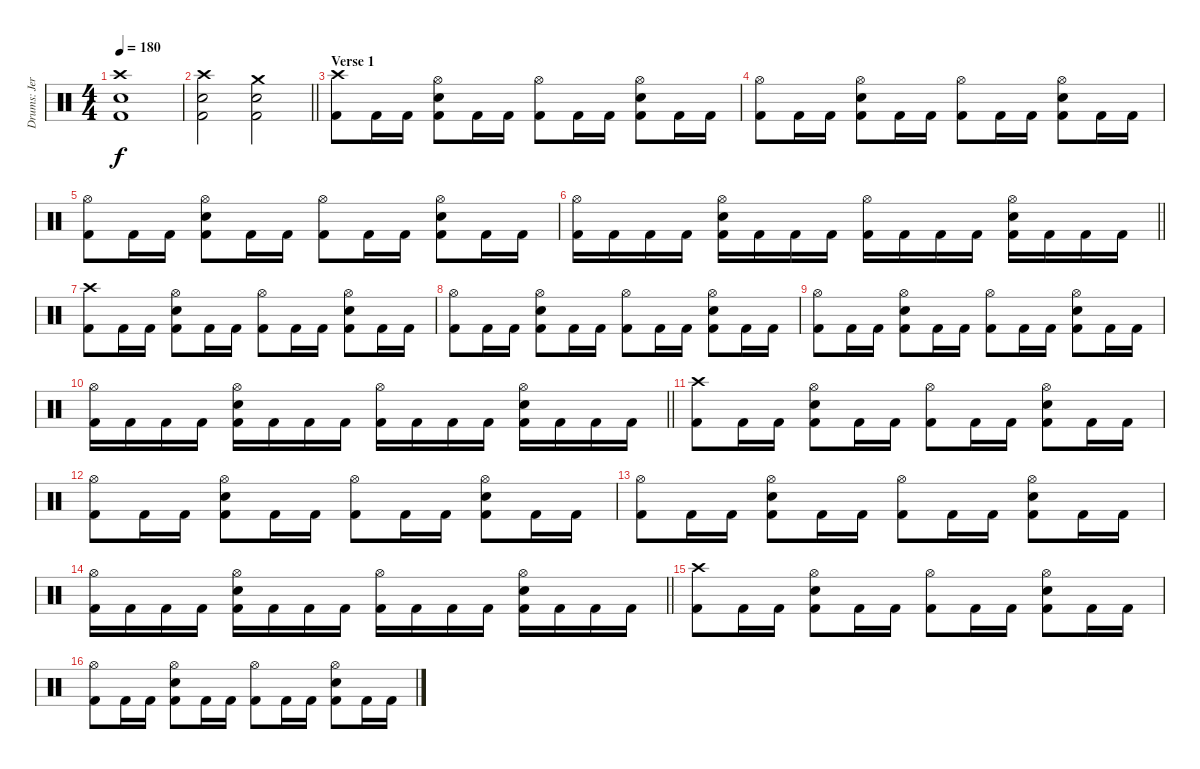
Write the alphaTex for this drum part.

\track ("Drums: Jere Luokkamäki" "Drums: Jer") {instrument percussion}
\staff {score}
\articulation defaults
\ts (4 4)
\tempo 180
\clef neutral
\ks aminor
("Crash high (hit)" "Electric Snare (hit)" "Kick (hit) 2").1{dy f} |
\barLineRight lightlight
("Crash high (hit)" "Electric Snare (hit)" "Kick (hit) 2").2 ("Crash medium (hit)" "Electric Snare (hit)" "Kick (hit) 2").2 |
\section ("" "Verse 1")
("Crash high (hit)" "Kick (hit) 2").8 "Kick (hit) 2".16 "Kick (hit) 2".16 ("Hi-Hat (open)" "Electric Snare (hit)" "Kick (hit) 2").8 "Kick (hit) 2".16 "Kick (hit) 2".16 ("Hi-Hat (open)" "Kick (hit) 2").8 "Kick (hit) 2".16 "Kick (hit) 2".16 ("Hi-Hat (open)" "Electric Snare (hit)" "Kick (hit) 2").8 "Kick (hit) 2".16 "Kick (hit) 2".16 |
("Hi-Hat (open)" "Kick (hit) 2").8 "Kick (hit) 2".16 "Kick (hit) 2".16 ("Hi-Hat (open)" "Electric Snare (hit)" "Kick (hit) 2").8 "Kick (hit) 2".16 "Kick (hit) 2".16 ("Hi-Hat (open)" "Kick (hit) 2").8 "Kick (hit) 2".16 "Kick (hit) 2".16 ("Hi-Hat (open)" "Electric Snare (hit)" "Kick (hit) 2").8 "Kick (hit) 2".16 "Kick (hit) 2".16 |
("Hi-Hat (open)" "Kick (hit) 2").8 "Kick (hit) 2".16 "Kick (hit) 2".16 ("Hi-Hat (open)" "Electric Snare (hit)" "Kick (hit) 2").8 "Kick (hit) 2".16 "Kick (hit) 2".16 ("Hi-Hat (open)" "Kick (hit) 2").8 "Kick (hit) 2".16 "Kick (hit) 2".16 ("Hi-Hat (open)" "Electric Snare (hit)" "Kick (hit) 2").8 "Kick (hit) 2".16 "Kick (hit) 2".16 |
\barLineRight lightlight
("Hi-Hat (open)" "Kick (hit) 2").16 "Kick (hit) 2".16 "Kick (hit) 2".16 "Kick (hit) 2".16 ("Hi-Hat (open)" "Electric Snare (hit)" "Kick (hit) 2").16 "Kick (hit) 2".16 "Kick (hit) 2".16 "Kick (hit) 2".16 ("Hi-Hat (open)" "Kick (hit) 2").16 "Kick (hit) 2".16 "Kick (hit) 2".16 "Kick (hit) 2".16 ("Hi-Hat (open)" "Electric Snare (hit)" "Kick (hit) 2").16 "Kick (hit) 2".16 "Kick (hit) 2".16 "Kick (hit) 2".16 |
("Crash high (hit)" "Kick (hit) 2").8 "Kick (hit) 2".16 "Kick (hit) 2".16 ("Hi-Hat (open)" "Electric Snare (hit)" "Kick (hit) 2").8 "Kick (hit) 2".16 "Kick (hit) 2".16 ("Hi-Hat (open)" "Kick (hit) 2").8 "Kick (hit) 2".16 "Kick (hit) 2".16 ("Hi-Hat (open)" "Electric Snare (hit)" "Kick (hit) 2").8 "Kick (hit) 2".16 "Kick (hit) 2".16 |
("Hi-Hat (open)" "Kick (hit) 2").8 "Kick (hit) 2".16 "Kick (hit) 2".16 ("Hi-Hat (open)" "Electric Snare (hit)" "Kick (hit) 2").8 "Kick (hit) 2".16 "Kick (hit) 2".16 ("Hi-Hat (open)" "Kick (hit) 2").8 "Kick (hit) 2".16 "Kick (hit) 2".16 ("Hi-Hat (open)" "Electric Snare (hit)" "Kick (hit) 2").8 "Kick (hit) 2".16 "Kick (hit) 2".16 |
("Hi-Hat (open)" "Kick (hit) 2").8 "Kick (hit) 2".16 "Kick (hit) 2".16 ("Hi-Hat (open)" "Electric Snare (hit)" "Kick (hit) 2").8 "Kick (hit) 2".16 "Kick (hit) 2".16 ("Hi-Hat (open)" "Kick (hit) 2").8 "Kick (hit) 2".16 "Kick (hit) 2".16 ("Hi-Hat (open)" "Electric Snare (hit)" "Kick (hit) 2").8 "Kick (hit) 2".16 "Kick (hit) 2".16 |
\barLineRight lightlight
("Hi-Hat (open)" "Kick (hit) 2").16 "Kick (hit) 2".16 "Kick (hit) 2".16 "Kick (hit) 2".16 ("Hi-Hat (open)" "Electric Snare (hit)" "Kick (hit) 2").16 "Kick (hit) 2".16 "Kick (hit) 2".16 "Kick (hit) 2".16 ("Hi-Hat (open)" "Kick (hit) 2").16 "Kick (hit) 2".16 "Kick (hit) 2".16 "Kick (hit) 2".16 ("Hi-Hat (open)" "Electric Snare (hit)" "Kick (hit) 2").16 "Kick (hit) 2".16 "Kick (hit) 2".16 "Kick (hit) 2".16 |
("Crash high (hit)" "Kick (hit) 2").8 "Kick (hit) 2".16 "Kick (hit) 2".16 ("Hi-Hat (open)" "Electric Snare (hit)" "Kick (hit) 2").8 "Kick (hit) 2".16 "Kick (hit) 2".16 ("Hi-Hat (open)" "Kick (hit) 2").8 "Kick (hit) 2".16 "Kick (hit) 2".16 ("Hi-Hat (open)" "Electric Snare (hit)" "Kick (hit) 2").8 "Kick (hit) 2".16 "Kick (hit) 2".16 |
("Hi-Hat (open)" "Kick (hit) 2").8 "Kick (hit) 2".16 "Kick (hit) 2".16 ("Hi-Hat (open)" "Electric Snare (hit)" "Kick (hit) 2").8 "Kick (hit) 2".16 "Kick (hit) 2".16 ("Hi-Hat (open)" "Kick (hit) 2").8 "Kick (hit) 2".16 "Kick (hit) 2".16 ("Hi-Hat (open)" "Electric Snare (hit)" "Kick (hit) 2").8 "Kick (hit) 2".16 "Kick (hit) 2".16 |
("Hi-Hat (open)" "Kick (hit) 2").8 "Kick (hit) 2".16 "Kick (hit) 2".16 ("Hi-Hat (open)" "Electric Snare (hit)" "Kick (hit) 2").8 "Kick (hit) 2".16 "Kick (hit) 2".16 ("Hi-Hat (open)" "Kick (hit) 2").8 "Kick (hit) 2".16 "Kick (hit) 2".16 ("Hi-Hat (open)" "Electric Snare (hit)" "Kick (hit) 2").8 "Kick (hit) 2".16 "Kick (hit) 2".16 |
\barLineRight lightlight
("Hi-Hat (open)" "Kick (hit) 2").16 "Kick (hit) 2".16 "Kick (hit) 2".16 "Kick (hit) 2".16 ("Hi-Hat (open)" "Electric Snare (hit)" "Kick (hit) 2").16 "Kick (hit) 2".16 "Kick (hit) 2".16 "Kick (hit) 2".16 ("Hi-Hat (open)" "Kick (hit) 2").16 "Kick (hit) 2".16 "Kick (hit) 2".16 "Kick (hit) 2".16 ("Hi-Hat (open)" "Electric Snare (hit)" "Kick (hit) 2").16 "Kick (hit) 2".16 "Kick (hit) 2".16 "Kick (hit) 2".16 |
("Crash high (hit)" "Kick (hit) 2").8 "Kick (hit) 2".16 "Kick (hit) 2".16 ("Hi-Hat (open)" "Electric Snare (hit)" "Kick (hit) 2").8 "Kick (hit) 2".16 "Kick (hit) 2".16 ("Hi-Hat (open)" "Kick (hit) 2").8 "Kick (hit) 2".16 "Kick (hit) 2".16 ("Hi-Hat (open)" "Electric Snare (hit)" "Kick (hit) 2").8 "Kick (hit) 2".16 "Kick (hit) 2".16 |
("Hi-Hat (open)" "Kick (hit) 2").8 "Kick (hit) 2".16 "Kick (hit) 2".16 ("Hi-Hat (open)" "Electric Snare (hit)" "Kick (hit) 2").8 "Kick (hit) 2".16 "Kick (hit) 2".16 ("Hi-Hat (open)" "Kick (hit) 2").8 "Kick (hit) 2".16 "Kick (hit) 2".16 ("Hi-Hat (open)" "Electric Snare (hit)" "Kick (hit) 2").8 "Kick (hit) 2".16 "Kick (hit) 2".16
